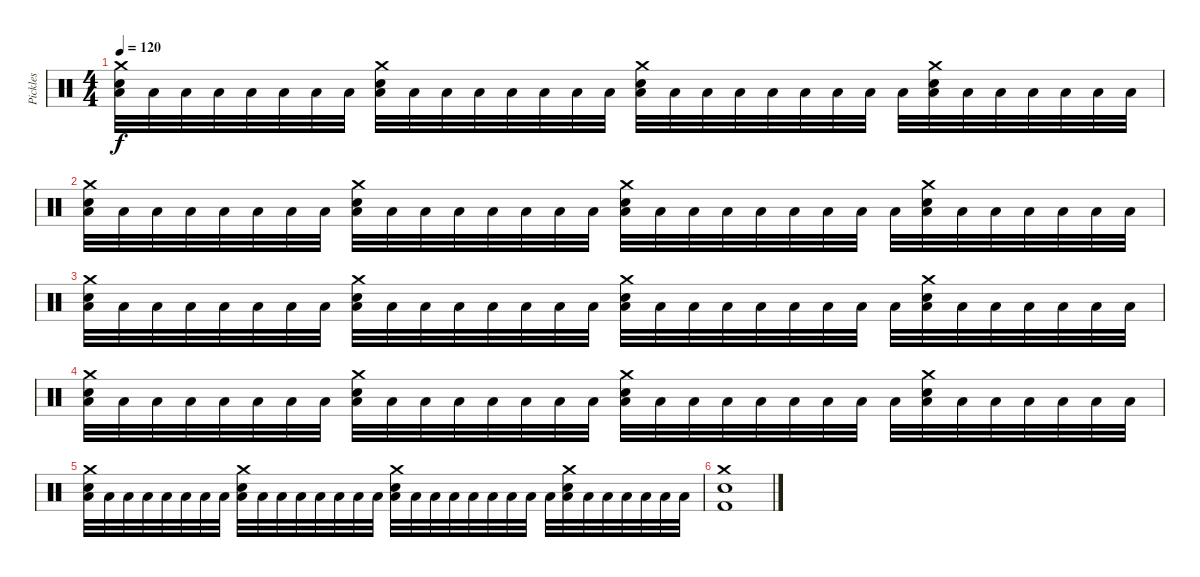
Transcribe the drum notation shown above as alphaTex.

\track ("Pickles" "Pickles") {instrument percussion}
\staff {score}
\articulation defaults
\ts (4 4)
\tempo 120
\clef neutral
\ks c
("Crash medium (hit)" "Snare (hit) 2" "Low Tom (hit)").32{dy f} "Low Tom (hit)".32 "Low Tom (hit)".32 "Low Tom (hit)".32 "Low Tom (hit)".32 "Low Tom (hit)".32 "Low Tom (hit)".32 "Low Tom (hit)".32 ("Crash medium (hit)" "Snare (hit) 2" "Low Tom (hit)").32 "Low Tom (hit)".32 "Low Tom (hit)".32 "Low Tom (hit)".32 "Low Tom (hit)".32 "Low Tom (hit)".32 "Low Tom (hit)".32 "Low Tom (hit)".32 ("Crash medium (hit)" "Snare (hit) 2" "Low Tom (hit)").32 "Low Tom (hit)".32 "Low Tom (hit)".32 "Low Tom (hit)".32 "Low Tom (hit)".32 "Low Tom (hit)".32 "Low Tom (hit)".32 "Low Tom (hit)".32 "Low Tom (hit)".32 ("Crash medium (hit)" "Snare (hit) 2" "Low Tom (hit)").32 "Low Tom (hit)".32 "Low Tom (hit)".32 "Low Tom (hit)".32 "Low Tom (hit)".32 "Low Tom (hit)".32 "Low Tom (hit)".32 |
("Crash medium (hit)" "Snare (hit) 2" "Low Tom (hit)").32 "Low Tom (hit)".32 "Low Tom (hit)".32 "Low Tom (hit)".32 "Low Tom (hit)".32 "Low Tom (hit)".32 "Low Tom (hit)".32 "Low Tom (hit)".32 ("Crash medium (hit)" "Snare (hit) 2" "Low Tom (hit)").32 "Low Tom (hit)".32 "Low Tom (hit)".32 "Low Tom (hit)".32 "Low Tom (hit)".32 "Low Tom (hit)".32 "Low Tom (hit)".32 "Low Tom (hit)".32 ("Crash medium (hit)" "Snare (hit) 2" "Low Tom (hit)").32 "Low Tom (hit)".32 "Low Tom (hit)".32 "Low Tom (hit)".32 "Low Tom (hit)".32 "Low Tom (hit)".32 "Low Tom (hit)".32 "Low Tom (hit)".32 "Low Tom (hit)".32 ("Crash medium (hit)" "Snare (hit) 2" "Low Tom (hit)").32 "Low Tom (hit)".32 "Low Tom (hit)".32 "Low Tom (hit)".32 "Low Tom (hit)".32 "Low Tom (hit)".32 "Low Tom (hit)".32 |
("Crash medium (hit)" "Snare (hit) 2" "Low Tom (hit)").32 "Low Tom (hit)".32 "Low Tom (hit)".32 "Low Tom (hit)".32 "Low Tom (hit)".32 "Low Tom (hit)".32 "Low Tom (hit)".32 "Low Tom (hit)".32 ("Crash medium (hit)" "Snare (hit) 2" "Low Tom (hit)").32 "Low Tom (hit)".32 "Low Tom (hit)".32 "Low Tom (hit)".32 "Low Tom (hit)".32 "Low Tom (hit)".32 "Low Tom (hit)".32 "Low Tom (hit)".32 ("Crash medium (hit)" "Snare (hit) 2" "Low Tom (hit)").32 "Low Tom (hit)".32 "Low Tom (hit)".32 "Low Tom (hit)".32 "Low Tom (hit)".32 "Low Tom (hit)".32 "Low Tom (hit)".32 "Low Tom (hit)".32 "Low Tom (hit)".32 ("Crash medium (hit)" "Snare (hit) 2" "Low Tom (hit)").32 "Low Tom (hit)".32 "Low Tom (hit)".32 "Low Tom (hit)".32 "Low Tom (hit)".32 "Low Tom (hit)".32 "Low Tom (hit)".32 |
("Crash medium (hit)" "Snare (hit) 2" "Low Tom (hit)").32 "Low Tom (hit)".32 "Low Tom (hit)".32 "Low Tom (hit)".32 "Low Tom (hit)".32 "Low Tom (hit)".32 "Low Tom (hit)".32 "Low Tom (hit)".32 ("Crash medium (hit)" "Snare (hit) 2" "Low Tom (hit)").32 "Low Tom (hit)".32 "Low Tom (hit)".32 "Low Tom (hit)".32 "Low Tom (hit)".32 "Low Tom (hit)".32 "Low Tom (hit)".32 "Low Tom (hit)".32 ("Crash medium (hit)" "Snare (hit) 2" "Low Tom (hit)").32 "Low Tom (hit)".32 "Low Tom (hit)".32 "Low Tom (hit)".32 "Low Tom (hit)".32 "Low Tom (hit)".32 "Low Tom (hit)".32 "Low Tom (hit)".32 "Low Tom (hit)".32 ("Crash medium (hit)" "Snare (hit) 2" "Low Tom (hit)").32 "Low Tom (hit)".32 "Low Tom (hit)".32 "Low Tom (hit)".32 "Low Tom (hit)".32 "Low Tom (hit)".32 "Low Tom (hit)".32 |
("Crash medium (hit)" "Snare (hit) 2" "Low Tom (hit)").32 "Low Tom (hit)".32 "Low Tom (hit)".32 "Low Tom (hit)".32 "Low Tom (hit)".32 "Low Tom (hit)".32 "Low Tom (hit)".32 "Low Tom (hit)".32 ("Crash medium (hit)" "Snare (hit) 2" "Low Tom (hit)").32 "Low Tom (hit)".32 "Low Tom (hit)".32 "Low Tom (hit)".32 "Low Tom (hit)".32 "Low Tom (hit)".32 "Low Tom (hit)".32 "Low Tom (hit)".32 ("Crash medium (hit)" "Snare (hit) 2" "Low Tom (hit)").32 "Low Tom (hit)".32 "Low Tom (hit)".32 "Low Tom (hit)".32 "Low Tom (hit)".32 "Low Tom (hit)".32 "Low Tom (hit)".32 "Low Tom (hit)".32 "Low Tom (hit)".32 ("Crash medium (hit)" "Snare (hit) 2" "Low Tom (hit)").32 "Low Tom (hit)".32 "Low Tom (hit)".32 "Low Tom (hit)".32 "Low Tom (hit)".32 "Low Tom (hit)".32 "Low Tom (hit)".32 |
("Crash medium (hit)" "Snare (hit) 2" "Kick (hit) 2").1
